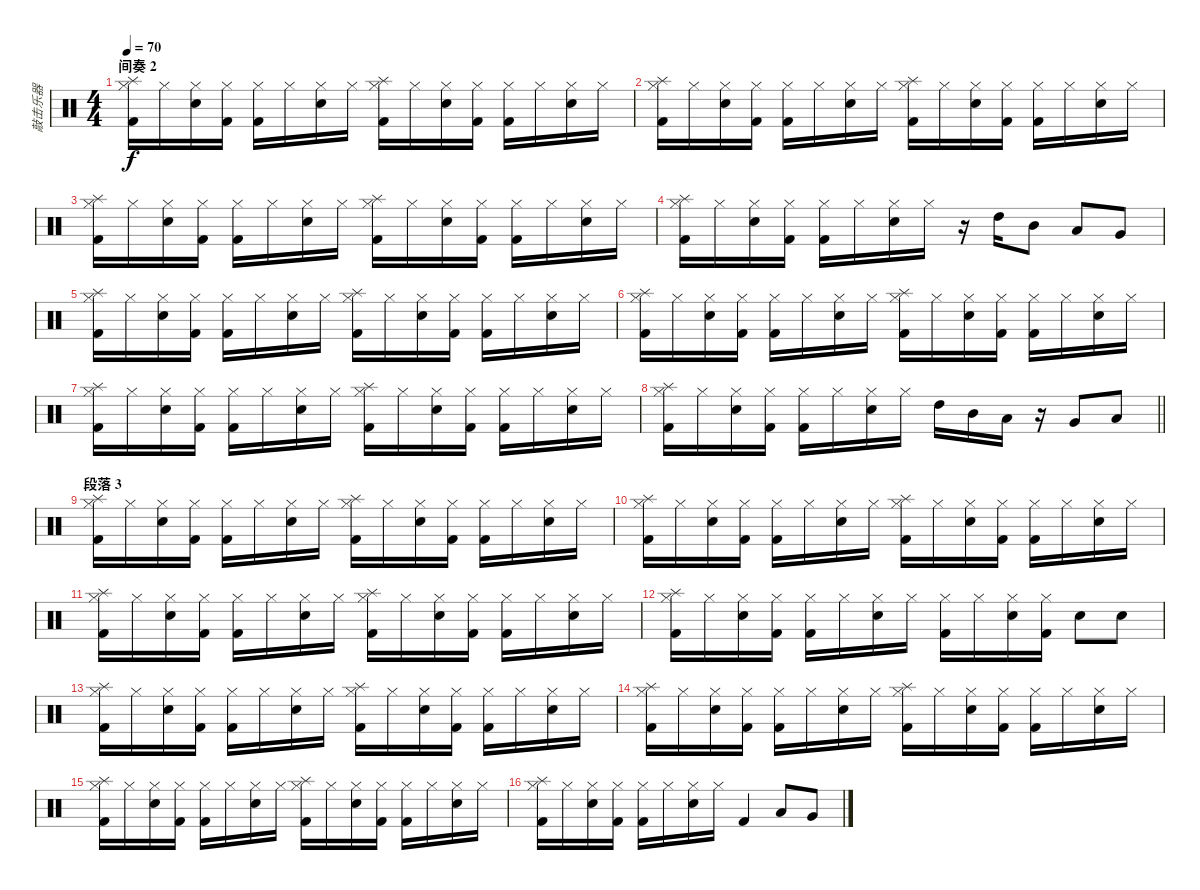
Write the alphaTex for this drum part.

\track ("敲击乐器" "敲击乐器") {instrument percussion}
\staff {score}
\articulation defaults
\ts (4 4)
\section ("" "间奏 2")
\tempo 70
\clef neutral
\ks c
("Kick (hit) 2" "Hi-Hat (closed)" "Splash (hit)").16{dy f} "Hi-Hat (closed)".16 ("Hi-Hat (closed)" "Electric Snare (hit)").16 ("Kick (hit) 2" "Hi-Hat (closed)").16 ("Kick (hit) 2" "Hi-Hat (closed)").16 "Hi-Hat (closed)".16 ("Hi-Hat (closed)" "Electric Snare (hit)").16 "Hi-Hat (closed)".16 ("Kick (hit) 2" "Hi-Hat (closed)" "Splash (hit)").16 "Hi-Hat (closed)".16 ("Hi-Hat (closed)" "Electric Snare (hit)").16 ("Kick (hit) 2" "Hi-Hat (closed)").16 ("Kick (hit) 2" "Hi-Hat (closed)").16 "Hi-Hat (closed)".16 ("Hi-Hat (closed)" "Electric Snare (hit)").16 "Hi-Hat (closed)".16 |
("Kick (hit) 2" "Hi-Hat (closed)" "Splash (hit)").16 "Hi-Hat (closed)".16 ("Hi-Hat (closed)" "Electric Snare (hit)").16 ("Kick (hit) 2" "Hi-Hat (closed)").16 ("Kick (hit) 2" "Hi-Hat (closed)").16 "Hi-Hat (closed)".16 ("Hi-Hat (closed)" "Electric Snare (hit)").16 "Hi-Hat (closed)".16 ("Kick (hit) 2" "Hi-Hat (closed)" "Splash (hit)").16 "Hi-Hat (closed)".16 ("Hi-Hat (closed)" "Electric Snare (hit)").16 ("Kick (hit) 2" "Hi-Hat (closed)").16 ("Kick (hit) 2" "Hi-Hat (closed)").16 "Hi-Hat (closed)".16 ("Hi-Hat (closed)" "Electric Snare (hit)").16 "Hi-Hat (closed)".16 |
("Kick (hit) 2" "Hi-Hat (closed)" "Splash (hit)").16 "Hi-Hat (closed)".16 ("Hi-Hat (closed)" "Electric Snare (hit)").16 ("Kick (hit) 2" "Hi-Hat (closed)").16 ("Kick (hit) 2" "Hi-Hat (closed)").16 "Hi-Hat (closed)".16 ("Hi-Hat (closed)" "Electric Snare (hit)").16 "Hi-Hat (closed)".16 ("Kick (hit) 2" "Hi-Hat (closed)" "Splash (hit)").16 "Hi-Hat (closed)".16 ("Hi-Hat (closed)" "Electric Snare (hit)").16 ("Kick (hit) 2" "Hi-Hat (closed)").16 ("Kick (hit) 2" "Hi-Hat (closed)").16 "Hi-Hat (closed)".16 ("Hi-Hat (closed)" "Electric Snare (hit)").16 "Hi-Hat (closed)".16 |
("Kick (hit) 2" "Hi-Hat (closed)" "Splash (hit)").16 "Hi-Hat (closed)".16 ("Hi-Hat (closed)" "Electric Snare (hit)").16 ("Kick (hit) 2" "Hi-Hat (closed)").16 ("Kick (hit) 2" "Hi-Hat (closed)").16 "Hi-Hat (closed)".16 ("Hi-Hat (closed)" "Electric Snare (hit)").16 "Hi-Hat (closed)".16 r.16 "High Tom (hit)".16 "Mid Tom (hit)".8 "Low Tom (hit)".8 "Very Low Tom (hit)".8 |
("Kick (hit) 2" "Hi-Hat (closed)" "Splash (hit)").16 "Hi-Hat (closed)".16 ("Hi-Hat (closed)" "Electric Snare (hit)").16 ("Kick (hit) 2" "Hi-Hat (closed)").16 ("Kick (hit) 2" "Hi-Hat (closed)").16 "Hi-Hat (closed)".16 ("Hi-Hat (closed)" "Electric Snare (hit)").16 "Hi-Hat (closed)".16 ("Kick (hit) 2" "Hi-Hat (closed)" "Splash (hit)").16 "Hi-Hat (closed)".16 ("Hi-Hat (closed)" "Electric Snare (hit)").16 ("Kick (hit) 2" "Hi-Hat (closed)").16 ("Kick (hit) 2" "Hi-Hat (closed)").16 "Hi-Hat (closed)".16 ("Hi-Hat (closed)" "Electric Snare (hit)").16 "Hi-Hat (closed)".16 |
("Kick (hit) 2" "Hi-Hat (closed)" "Splash (hit)").16 "Hi-Hat (closed)".16 ("Hi-Hat (closed)" "Electric Snare (hit)").16 ("Kick (hit) 2" "Hi-Hat (closed)").16 ("Kick (hit) 2" "Hi-Hat (closed)").16 "Hi-Hat (closed)".16 ("Hi-Hat (closed)" "Electric Snare (hit)").16 "Hi-Hat (closed)".16 ("Kick (hit) 2" "Hi-Hat (closed)" "Splash (hit)").16 "Hi-Hat (closed)".16 ("Hi-Hat (closed)" "Electric Snare (hit)").16 ("Kick (hit) 2" "Hi-Hat (closed)").16 ("Kick (hit) 2" "Hi-Hat (closed)").16 "Hi-Hat (closed)".16 ("Hi-Hat (closed)" "Electric Snare (hit)").16 "Hi-Hat (closed)".16 |
("Kick (hit) 2" "Hi-Hat (closed)" "Splash (hit)").16 "Hi-Hat (closed)".16 ("Hi-Hat (closed)" "Electric Snare (hit)").16 ("Kick (hit) 2" "Hi-Hat (closed)").16 ("Kick (hit) 2" "Hi-Hat (closed)").16 "Hi-Hat (closed)".16 ("Hi-Hat (closed)" "Electric Snare (hit)").16 "Hi-Hat (closed)".16 ("Kick (hit) 2" "Hi-Hat (closed)" "Splash (hit)").16 "Hi-Hat (closed)".16 ("Hi-Hat (closed)" "Electric Snare (hit)").16 ("Kick (hit) 2" "Hi-Hat (closed)").16 ("Kick (hit) 2" "Hi-Hat (closed)").16 "Hi-Hat (closed)".16 ("Hi-Hat (closed)" "Electric Snare (hit)").16 "Hi-Hat (closed)".16 |
\barLineRight lightlight
("Kick (hit) 2" "Hi-Hat (closed)" "Splash (hit)").16 "Hi-Hat (closed)".16 ("Hi-Hat (closed)" "Electric Snare (hit)").16 ("Kick (hit) 2" "Hi-Hat (closed)").16 ("Kick (hit) 2" "Hi-Hat (closed)").16 "Hi-Hat (closed)".16 ("Hi-Hat (closed)" "Electric Snare (hit)").16 "Hi-Hat (closed)".16 "High Tom (hit)".16 "Mid Tom (hit)".16 "Low Tom (hit)".16 r.16 "Very Low Tom (hit)".8 "Low Floor Tom (hit)".8 |
\section ("" "段落 3")
("Kick (hit) 2" "Hi-Hat (closed)" "Splash (hit)").16 "Hi-Hat (closed)".16 ("Hi-Hat (closed)" "Electric Snare (hit)").16 ("Kick (hit) 2" "Hi-Hat (closed)").16 ("Kick (hit) 2" "Hi-Hat (closed)").16 "Hi-Hat (closed)".16 ("Hi-Hat (closed)" "Electric Snare (hit)").16 "Hi-Hat (closed)".16 ("Kick (hit) 2" "Hi-Hat (closed)" "Splash (hit)").16 "Hi-Hat (closed)".16 ("Hi-Hat (closed)" "Electric Snare (hit)").16 ("Kick (hit) 2" "Hi-Hat (closed)").16 ("Kick (hit) 2" "Hi-Hat (closed)").16 "Hi-Hat (closed)".16 ("Hi-Hat (closed)" "Electric Snare (hit)").16 "Hi-Hat (closed)".16 |
("Kick (hit) 2" "Hi-Hat (closed)" "Splash (hit)").16 "Hi-Hat (closed)".16 ("Hi-Hat (closed)" "Electric Snare (hit)").16 ("Kick (hit) 2" "Hi-Hat (closed)").16 ("Kick (hit) 2" "Hi-Hat (closed)").16 "Hi-Hat (closed)".16 ("Hi-Hat (closed)" "Electric Snare (hit)").16 "Hi-Hat (closed)".16 ("Kick (hit) 2" "Hi-Hat (closed)" "Splash (hit)").16 "Hi-Hat (closed)".16 ("Hi-Hat (closed)" "Electric Snare (hit)").16 ("Kick (hit) 2" "Hi-Hat (closed)").16 ("Kick (hit) 2" "Hi-Hat (closed)").16 "Hi-Hat (closed)".16 ("Hi-Hat (closed)" "Electric Snare (hit)").16 "Hi-Hat (closed)".16 |
("Kick (hit) 2" "Hi-Hat (closed)" "Splash (hit)").16 "Hi-Hat (closed)".16 ("Hi-Hat (closed)" "Electric Snare (hit)").16 ("Kick (hit) 2" "Hi-Hat (closed)").16 ("Kick (hit) 2" "Hi-Hat (closed)").16 "Hi-Hat (closed)".16 ("Hi-Hat (closed)" "Electric Snare (hit)").16 "Hi-Hat (closed)".16 ("Kick (hit) 2" "Hi-Hat (closed)" "Splash (hit)").16 "Hi-Hat (closed)".16 ("Hi-Hat (closed)" "Electric Snare (hit)").16 ("Kick (hit) 2" "Hi-Hat (closed)").16 ("Kick (hit) 2" "Hi-Hat (closed)").16 "Hi-Hat (closed)".16 ("Hi-Hat (closed)" "Electric Snare (hit)").16 "Hi-Hat (closed)".16 |
("Kick (hit) 2" "Hi-Hat (closed)" "Splash (hit)").16 "Hi-Hat (closed)".16 ("Hi-Hat (closed)" "Electric Snare (hit)").16 ("Kick (hit) 2" "Hi-Hat (closed)").16 ("Kick (hit) 2" "Hi-Hat (closed)").16 "Hi-Hat (closed)".16 ("Hi-Hat (closed)" "Electric Snare (hit)").16 "Hi-Hat (closed)".16 ("Kick (hit) 2" "Hi-Hat (closed)").16 "Hi-Hat (closed)".16 ("Hi-Hat (closed)" "Electric Snare (hit)").16 ("Kick (hit) 2" "Hi-Hat (closed)").16 "Electric Snare (hit)".8 "Snare (hit) 2".8 |
("Kick (hit) 2" "Hi-Hat (closed)" "Splash (hit)").16 "Hi-Hat (closed)".16 ("Hi-Hat (closed)" "Electric Snare (hit)").16 ("Kick (hit) 2" "Hi-Hat (closed)").16 ("Kick (hit) 2" "Hi-Hat (closed)").16 "Hi-Hat (closed)".16 ("Hi-Hat (closed)" "Electric Snare (hit)").16 "Hi-Hat (closed)".16 ("Kick (hit) 2" "Hi-Hat (closed)" "Splash (hit)").16 "Hi-Hat (closed)".16 ("Hi-Hat (closed)" "Electric Snare (hit)").16 ("Kick (hit) 2" "Hi-Hat (closed)").16 ("Kick (hit) 2" "Hi-Hat (closed)").16 "Hi-Hat (closed)".16 ("Hi-Hat (closed)" "Electric Snare (hit)").16 "Hi-Hat (closed)".16 |
("Kick (hit) 2" "Hi-Hat (closed)" "Splash (hit)").16 "Hi-Hat (closed)".16 ("Hi-Hat (closed)" "Electric Snare (hit)").16 ("Kick (hit) 2" "Hi-Hat (closed)").16 ("Kick (hit) 2" "Hi-Hat (closed)").16 "Hi-Hat (closed)".16 ("Hi-Hat (closed)" "Electric Snare (hit)").16 "Hi-Hat (closed)".16 ("Kick (hit) 2" "Hi-Hat (closed)" "Splash (hit)").16 "Hi-Hat (closed)".16 ("Hi-Hat (closed)" "Electric Snare (hit)").16 ("Kick (hit) 2" "Hi-Hat (closed)").16 ("Kick (hit) 2" "Hi-Hat (closed)").16 "Hi-Hat (closed)".16 ("Hi-Hat (closed)" "Electric Snare (hit)").16 "Hi-Hat (closed)".16 |
("Kick (hit) 2" "Hi-Hat (closed)" "Splash (hit)").16 "Hi-Hat (closed)".16 ("Hi-Hat (closed)" "Electric Snare (hit)").16 ("Kick (hit) 2" "Hi-Hat (closed)").16 ("Kick (hit) 2" "Hi-Hat (closed)").16 "Hi-Hat (closed)".16 ("Hi-Hat (closed)" "Electric Snare (hit)").16 "Hi-Hat (closed)".16 ("Kick (hit) 2" "Hi-Hat (closed)" "Splash (hit)").16 "Hi-Hat (closed)".16 ("Hi-Hat (closed)" "Electric Snare (hit)").16 ("Kick (hit) 2" "Hi-Hat (closed)").16 ("Kick (hit) 2" "Hi-Hat (closed)").16 "Hi-Hat (closed)".16 ("Hi-Hat (closed)" "Electric Snare (hit)").16 "Hi-Hat (closed)".16 |
("Kick (hit) 2" "Hi-Hat (closed)" "Splash (hit)").16 "Hi-Hat (closed)".16 ("Hi-Hat (closed)" "Electric Snare (hit)").16 ("Kick (hit) 2" "Hi-Hat (closed)").16 ("Kick (hit) 2" "Hi-Hat (closed)").16 "Hi-Hat (closed)".16 ("Hi-Hat (closed)" "Electric Snare (hit)").16 "Hi-Hat (closed)".16 "Kick (hit) 2".4 "Low Tom (hit)".8 "Very Low Tom (hit)".8
